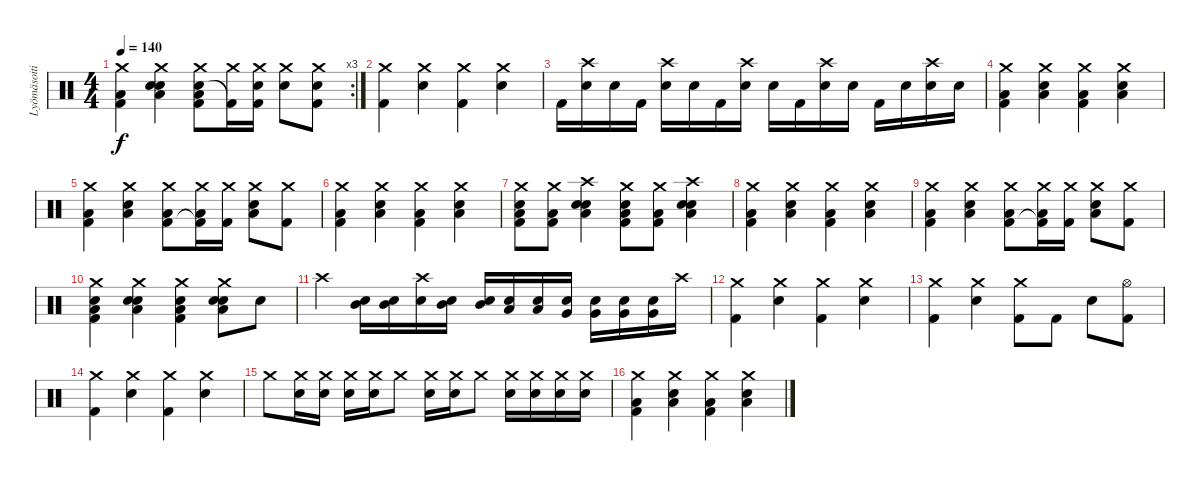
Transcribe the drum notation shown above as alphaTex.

\track ("Lyömäsoitin" "Lyömäsoiti") {instrument percussion}
\staff {score}
\articulation defaults
\rc 3
\ts (4 4)
\tempo 140
\clef neutral
\ks c
("Crash medium (hit)" "Low Floor Tom (hit)" "Kick (hit) 2").4{dy f} ("Crash medium (hit)" "Electric Snare (hit)" "Low Floor Tom (hit)" "Snare (hit) 2").4 ("Crash medium (hit)" "Electric Snare (hit)" "Low Floor Tom (hit)" "Kick (hit) 2").8 ("Crash medium (hit)" "Kick (hit) 2"{t}).16 ("Crash medium (hit)" "Electric Snare (hit)" "Kick (hit) 2").16 ("Crash medium (hit)" "Snare (hit) 2").8 ("Crash medium (hit)" "Electric Snare (hit)" "Kick (hit) 2").8 |
("Crash medium (hit)" "Kick (hit) 2").4 ("Crash medium (hit)" "Snare (hit) 2").4 ("Crash medium (hit)" "Kick (hit) 2").4 ("Crash medium (hit)" "Snare (hit) 2").4 |
"Kick (hit) 2".16 ("Crash high (hit)" "Snare (hit) 2").16 "Electric Snare (hit)".16 "Kick (hit) 2".16 ("Crash high (hit)" "Snare (hit) 2").16 "Electric Snare (hit)".16 "Kick (hit) 2".16 ("Crash high (hit)" "Snare (hit) 2").16 "Electric Snare (hit)".16 "Kick (hit) 2".16 ("Crash high (hit)" "Snare (hit) 2").16 "Electric Snare (hit)".16 "Kick (hit) 2".16 "Electric Snare (hit)".16 ("Crash high (hit)" "Snare (hit) 2").16 "Electric Snare (hit)".16 |
("Crash medium (hit)" "Low Floor Tom (hit)" "Kick (hit) 2").4 ("Crash medium (hit)" "Low Floor Tom (hit)" "Snare (hit) 2").4 ("Crash medium (hit)" "Low Floor Tom (hit)" "Kick (hit) 2").4 ("Crash medium (hit)" "Low Floor Tom (hit)" "Snare (hit) 2").4 |
("Crash medium (hit)" "Low Floor Tom (hit)" "Kick (hit) 2").4 ("Crash medium (hit)" "Low Floor Tom (hit)" "Snare (hit) 2").4 ("Crash medium (hit)" "Low Floor Tom (hit)" "Kick (hit) 2").8 ("Crash medium (hit)" "Low Floor Tom (hit)" "Kick (hit) 2"{t}).16 ("Crash medium (hit)" "Kick (hit) 2").16 ("Crash medium (hit)" "Low Floor Tom (hit)" "Snare (hit) 2").8 ("Crash medium (hit)" "Kick (hit) 2").8 |
("Crash medium (hit)" "Low Floor Tom (hit)" "Kick (hit) 2").4 ("Crash medium (hit)" "Low Floor Tom (hit)" "Snare (hit) 2").4 ("Crash medium (hit)" "Low Floor Tom (hit)" "Kick (hit) 2").4 ("Crash medium (hit)" "Low Floor Tom (hit)" "Snare (hit) 2").4 |
("Crash medium (hit)" "Low Floor Tom (hit)" "Electric Snare (hit)" "Kick (hit) 2").8 ("Crash medium (hit)" "Low Floor Tom (hit)" "Kick (hit) 2").8 ("Crash high (hit)" "Low Floor Tom (hit)" "Electric Snare (hit)" "Snare (hit) 2").4 ("Crash medium (hit)" "Low Floor Tom (hit)" "Electric Snare (hit)" "Kick (hit) 2").8 ("Crash medium (hit)" "Low Floor Tom (hit)" "Kick (hit) 2").8 ("Crash high (hit)" "Low Floor Tom (hit)" "Electric Snare (hit)" "Snare (hit) 2").4 |
("Crash medium (hit)" "Low Floor Tom (hit)" "Kick (hit) 2").4 ("Crash medium (hit)" "Low Floor Tom (hit)" "Snare (hit) 2").4 ("Crash medium (hit)" "Low Floor Tom (hit)" "Kick (hit) 2").4 ("Crash medium (hit)" "Low Floor Tom (hit)" "Snare (hit) 2").4 |
("Crash medium (hit)" "Low Floor Tom (hit)" "Kick (hit) 2").4 ("Crash medium (hit)" "Low Floor Tom (hit)" "Snare (hit) 2").4 ("Crash medium (hit)" "Low Floor Tom (hit)" "Kick (hit) 2").8 ("Crash medium (hit)" "Low Floor Tom (hit)" "Kick (hit) 2"{t}).16 ("Crash medium (hit)" "Kick (hit) 2").16 ("Crash medium (hit)" "Low Floor Tom (hit)" "Snare (hit) 2").8 ("Crash medium (hit)" "Kick (hit) 2").8 |
("Crash medium (hit)" "Low Floor Tom (hit)" "Electric Snare (hit)" "Kick (hit) 2").4 ("Crash medium (hit)" "Low Floor Tom (hit)" "Electric Snare (hit)" "Snare (hit) 2").4 ("Crash medium (hit)" "Low Floor Tom (hit)" "Electric Snare (hit)" "Kick (hit) 2").4 ("Crash medium (hit)" "Low Floor Tom (hit)" "Electric Snare (hit)" "Snare (hit) 2").8 "Electric Snare (hit)".8 |
"Crash high (hit)".4 ("Snare (hit) 2" "Mid Tom (hit)").16 ("Snare (hit) 2" "Mid Tom (hit)").16 ("Crash high (hit)" "Snare (hit) 2").16 ("Snare (hit) 2" "Mid Tom (hit)").16 ("Snare (hit) 2" "Mid Tom (hit)").16 ("Electric Snare (hit)" "Low Tom (hit)").16 ("Electric Snare (hit)" "Low Tom (hit)").16 ("Electric Snare (hit)" "Very Low Tom (hit)").16 ("Electric Snare (hit)" "Very Low Tom (hit)").16 ("Electric Snare (hit)" "Very Low Tom (hit)").16 ("Electric Snare (hit)" "Very Low Tom (hit)").16 "Crash high (hit)".16 |
("Crash medium (hit)" "Kick (hit) 2").4 ("Crash medium (hit)" "Snare (hit) 2").4 ("Crash medium (hit)" "Kick (hit) 2").4 ("Crash medium (hit)" "Snare (hit) 2").4 |
("Crash medium (hit)" "Kick (hit) 2").4 ("Crash medium (hit)" "Snare (hit) 2").4 ("Crash medium (hit)" "Kick (hit) 2").8 "Kick (hit) 2".8 "Snare (hit) 2".8 ("Hi-Hat (open)" "Kick (hit) 2").8 |
("Crash medium (hit)" "Kick (hit) 2").4 ("Crash medium (hit)" "Snare (hit) 2").4 ("Crash medium (hit)" "Kick (hit) 2").4 ("Crash medium (hit)" "Snare (hit) 2").4 |
"Crash medium (hit)".8 ("Crash medium (hit)" "Snare (hit) 2").16 ("Crash medium (hit)" "Snare (hit) 2").16 ("Crash medium (hit)" "Snare (hit) 2").16 ("Crash medium (hit)" "Snare (hit) 2").16 "Crash medium (hit)".8 ("Crash medium (hit)" "Snare (hit) 2").16 ("Crash medium (hit)" "Snare (hit) 2").16 "Crash medium (hit)".8 ("Crash medium (hit)" "Snare (hit) 2").16 ("Crash medium (hit)" "Snare (hit) 2").16 ("Crash medium (hit)" "Snare (hit) 2").16 ("Crash medium (hit)" "Snare (hit) 2").16 |
("Crash medium (hit)" "Low Floor Tom (hit)" "Kick (hit) 2").4 ("Crash medium (hit)" "Low Floor Tom (hit)" "Snare (hit) 2").4 ("Crash medium (hit)" "Low Floor Tom (hit)" "Kick (hit) 2").4 ("Crash medium (hit)" "Low Floor Tom (hit)" "Snare (hit) 2").4
